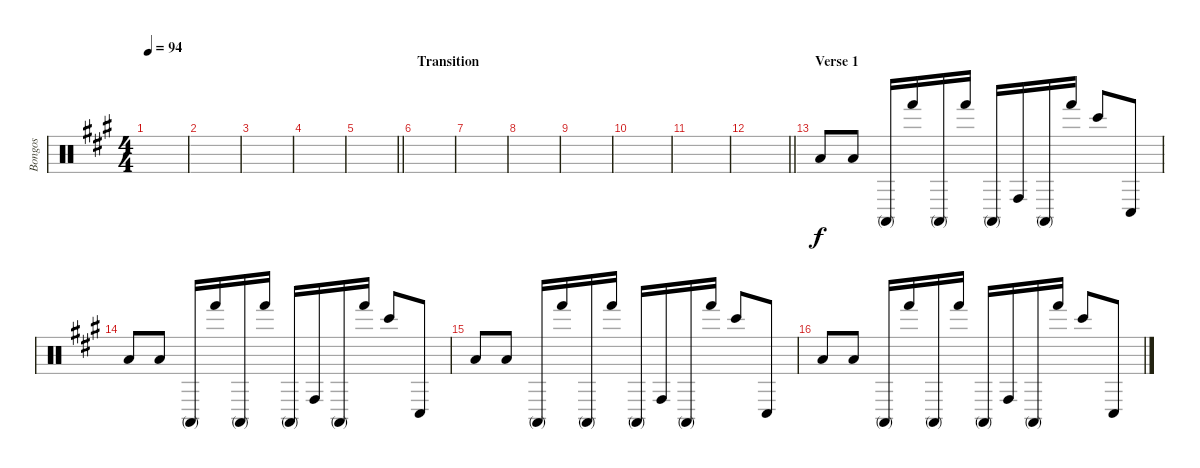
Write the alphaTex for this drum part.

\track ("Bongos" "Bongos") {instrument percussion}
\staff {score}
\articulation defaults
\ts (4 4)
\tempo 94
\clef neutral
\ks a
|
|
|
|
\barLineRight lightlight
|
\section ("" "Transition")
|
|
|
|
|
|
\barLineRight lightlight
|
\section ("" "Verse 1")
"Low Floor Tom (hit)".8{volume 3} "Low Floor Tom (hit)".8 "Conga high (mute)".16 "Hand (hit)".16 "Conga high (mute)".16 "Hand (hit)".16 "Conga high (mute)".16 "Conga high (hit)".16 "Conga high (mute)".16 "Hand (hit)".16 "Bongo High (hit)".8 "Conga low (hit)".8 |
"Low Floor Tom (hit)".8{volume 4} "Low Floor Tom (hit)".8 "Conga high (mute)".16 "Hand (hit)".16 "Conga high (mute)".16 "Hand (hit)".16 "Conga high (mute)".16 "Conga high (hit)".16 "Conga high (mute)".16 "Hand (hit)".16 "Bongo High (hit)".8 "Conga low (hit)".8 |
"Low Floor Tom (hit)".8{volume 6} "Low Floor Tom (hit)".8 "Conga high (mute)".16 "Hand (hit)".16 "Conga high (mute)".16 "Hand (hit)".16 "Conga high (mute)".16 "Conga high (hit)".16 "Conga high (mute)".16 "Hand (hit)".16 "Bongo High (hit)".8 "Conga low (hit)".8 |
"Low Floor Tom (hit)".8{volume 8} "Low Floor Tom (hit)".8 "Conga high (mute)".16 "Hand (hit)".16 "Conga high (mute)".16 "Hand (hit)".16 "Conga high (mute)".16 "Conga high (hit)".16 "Conga high (mute)".16 "Hand (hit)".16 "Bongo High (hit)".8 "Conga low (hit)".8
